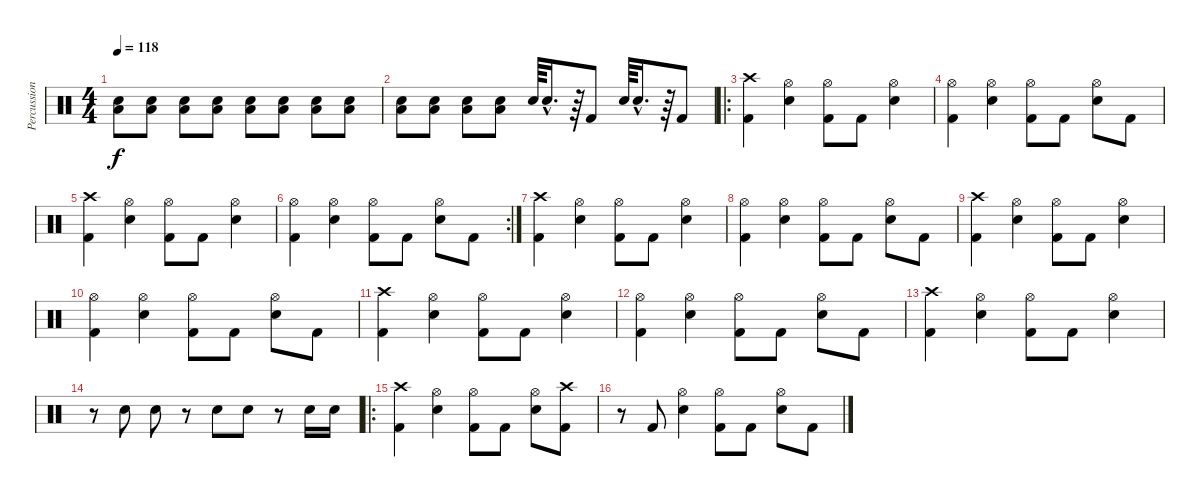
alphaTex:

\track ("Percussion" "Percussion") {instrument percussion}
\staff {score}
\articulation defaults
\ts (4 4)
\tempo 118
\clef neutral
\ks c
("Snare (hit) 2" "Low Floor Tom (hit)").8{dy f} ("Snare (hit) 2" "Low Floor Tom (hit)").8 ("Snare (hit) 2" "Low Floor Tom (hit)").8 ("Snare (hit) 2" "Low Floor Tom (hit)").8 ("Snare (hit) 2" "Low Floor Tom (hit)").8 ("Snare (hit) 2" "Low Floor Tom (hit)").8 ("Snare (hit) 2" "Low Floor Tom (hit)").8 ("Snare (hit) 2" "Low Floor Tom (hit)").8 |
("Snare (hit) 2" "Low Floor Tom (hit)").8 ("Snare (hit) 2" "Low Floor Tom (hit)").8 ("Snare (hit) 2" "Low Floor Tom (hit)").8 ("Snare (hit) 2" "Low Floor Tom (hit)").8 "Snare (hit) 2".64 "Snare (hit) 2"{hac}.16{d} r.64 "Kick (hit) 2".8 "Snare (hit) 2".64 "Snare (hit) 2"{hac}.16{d} r.64 "Kick (hit) 2".8 |
\ro
("Crash high (hit)" "Kick (hit) 2").4 ("Hi-Hat (open)" "Snare (hit) 2").4 ("Hi-Hat (open)" "Kick (hit) 2").8 "Kick (hit) 2".8 ("Hi-Hat (open)" "Snare (hit) 2").4 |
("Hi-Hat (open)" "Kick (hit) 2").4 ("Hi-Hat (open)" "Snare (hit) 2").4 ("Hi-Hat (open)" "Kick (hit) 2").8 "Kick (hit) 2".8 ("Hi-Hat (open)" "Snare (hit) 2").8 "Kick (hit) 2".8 |
("Crash high (hit)" "Kick (hit) 2").4 ("Hi-Hat (open)" "Snare (hit) 2").4 ("Hi-Hat (open)" "Kick (hit) 2").8 "Kick (hit) 2".8 ("Hi-Hat (open)" "Snare (hit) 2").4 |
\rc 2
("Hi-Hat (open)" "Kick (hit) 2").4 ("Hi-Hat (open)" "Snare (hit) 2").4 ("Hi-Hat (open)" "Kick (hit) 2").8 "Kick (hit) 2".8 ("Hi-Hat (open)" "Snare (hit) 2").8 "Kick (hit) 2".8 |
("Crash high (hit)" "Kick (hit) 2").4 ("Hi-Hat (open)" "Snare (hit) 2").4 ("Hi-Hat (open)" "Kick (hit) 2").8 "Kick (hit) 2".8 ("Hi-Hat (open)" "Snare (hit) 2").4 |
("Hi-Hat (open)" "Kick (hit) 2").4 ("Hi-Hat (open)" "Snare (hit) 2").4 ("Hi-Hat (open)" "Kick (hit) 2").8 "Kick (hit) 2".8 ("Hi-Hat (open)" "Snare (hit) 2").8 "Kick (hit) 2".8 |
("Crash high (hit)" "Kick (hit) 2").4 ("Hi-Hat (open)" "Snare (hit) 2").4 ("Hi-Hat (open)" "Kick (hit) 2").8 "Kick (hit) 2".8 ("Hi-Hat (open)" "Snare (hit) 2").4 |
("Hi-Hat (open)" "Kick (hit) 2").4 ("Hi-Hat (open)" "Snare (hit) 2").4 ("Hi-Hat (open)" "Kick (hit) 2").8 "Kick (hit) 2".8 ("Hi-Hat (open)" "Snare (hit) 2").8 "Kick (hit) 2".8 |
("Crash high (hit)" "Kick (hit) 2").4 ("Hi-Hat (open)" "Snare (hit) 2").4 ("Hi-Hat (open)" "Kick (hit) 2").8 "Kick (hit) 2".8 ("Hi-Hat (open)" "Snare (hit) 2").4 |
("Hi-Hat (open)" "Kick (hit) 2").4 ("Hi-Hat (open)" "Snare (hit) 2").4 ("Hi-Hat (open)" "Kick (hit) 2").8 "Kick (hit) 2".8 ("Hi-Hat (open)" "Snare (hit) 2").8 "Kick (hit) 2".8 |
("Crash high (hit)" "Kick (hit) 2").4 ("Hi-Hat (open)" "Snare (hit) 2").4 ("Hi-Hat (open)" "Kick (hit) 2").8 "Kick (hit) 2".8 ("Hi-Hat (open)" "Snare (hit) 2").4 |
r.8 "Snare (hit) 2".8 "Snare (hit) 2".8 r.8 "Snare (hit) 2".8 "Snare (hit) 2".8 r.8 "Snare (hit) 2".16 "Snare (hit) 2".16 |
\ro
("Crash high (hit)" "Kick (hit) 2").4 ("Hi-Hat (open)" "Snare (hit) 2").4 ("Hi-Hat (open)" "Kick (hit) 2").8 "Kick (hit) 2".8 ("Hi-Hat (open)" "Snare (hit) 2").8 ("Crash high (hit)" "Kick (hit) 2").8 |
r.8 "Kick (hit) 2".8 ("Hi-Hat (open)" "Snare (hit) 2").4 ("Hi-Hat (open)" "Kick (hit) 2").8 "Kick (hit) 2".8 ("Hi-Hat (open)" "Snare (hit) 2").8 "Kick (hit) 2".8
